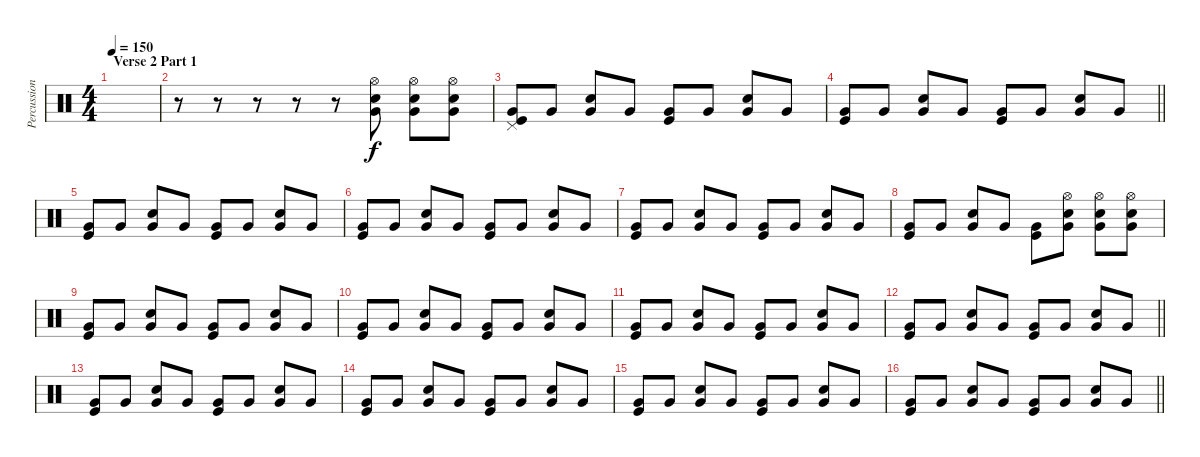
\track ("Percussion" "Percussion") {instrument percussion}
\staff {score}
\articulation defaults
\ts (4 4)
\section ("" "Verse 2 Part 1")
\tempo 150
\clef neutral
\ks c
|
r.8 r.8 r.8 r.8 r.8 ("Very Low Tom (hit)" "Snare (hit) 2" "Hi-Hat (open)").8 ("Very Low Tom (hit)" "Snare (hit) 2" "Hi-Hat (open)").8 ("Very Low Tom (hit)" "Snare (hit) 2" "Hi-Hat (open)").8 |
("Very Low Tom (hit)" "Kick (hit)" "Pedal Hi-Hat (hit)").8 "Very Low Tom (hit)".8 ("Very Low Tom (hit)" "Snare (hit) 2").8 "Very Low Tom (hit)".8 ("Very Low Tom (hit)" "Kick (hit)").8 "Very Low Tom (hit)".8 ("Very Low Tom (hit)" "Snare (hit) 2").8 "Very Low Tom (hit)".8 |
\barLineRight lightlight
("Very Low Tom (hit)" "Kick (hit)").8 "Very Low Tom (hit)".8 ("Very Low Tom (hit)" "Snare (hit) 2").8 "Very Low Tom (hit)".8 ("Very Low Tom (hit)" "Kick (hit)").8 "Very Low Tom (hit)".8 ("Very Low Tom (hit)" "Snare (hit) 2").8 "Very Low Tom (hit)".8 |
("Very Low Tom (hit)" "Kick (hit)").8 "Very Low Tom (hit)".8 ("Very Low Tom (hit)" "Snare (hit) 2").8 "Very Low Tom (hit)".8 ("Very Low Tom (hit)" "Kick (hit)").8 "Very Low Tom (hit)".8 ("Very Low Tom (hit)" "Snare (hit) 2").8 "Very Low Tom (hit)".8 |
("Very Low Tom (hit)" "Kick (hit)").8 "Very Low Tom (hit)".8 ("Very Low Tom (hit)" "Snare (hit) 2").8 "Very Low Tom (hit)".8 ("Very Low Tom (hit)" "Kick (hit)").8 "Very Low Tom (hit)".8 ("Very Low Tom (hit)" "Snare (hit) 2").8 "Very Low Tom (hit)".8 |
("Very Low Tom (hit)" "Kick (hit)").8 "Very Low Tom (hit)".8 ("Very Low Tom (hit)" "Snare (hit) 2").8 "Very Low Tom (hit)".8 ("Very Low Tom (hit)" "Kick (hit)").8 "Very Low Tom (hit)".8 ("Very Low Tom (hit)" "Snare (hit) 2").8 "Very Low Tom (hit)".8 |
("Very Low Tom (hit)" "Kick (hit)").8 "Very Low Tom (hit)".8 ("Very Low Tom (hit)" "Snare (hit) 2").8 "Very Low Tom (hit)".8 ("Very Low Tom (hit)" "Kick (hit)").8 ("Very Low Tom (hit)" "Snare (hit) 2" "Hi-Hat (open)").8 ("Very Low Tom (hit)" "Snare (hit) 2" "Hi-Hat (open)").8 ("Very Low Tom (hit)" "Snare (hit) 2" "Hi-Hat (open)").8 |
("Very Low Tom (hit)" "Kick (hit)").8 "Very Low Tom (hit)".8 ("Very Low Tom (hit)" "Snare (hit) 2").8 "Very Low Tom (hit)".8 ("Very Low Tom (hit)" "Kick (hit)").8 "Very Low Tom (hit)".8 ("Very Low Tom (hit)" "Snare (hit) 2").8 "Very Low Tom (hit)".8 |
("Very Low Tom (hit)" "Kick (hit)").8 "Very Low Tom (hit)".8 ("Very Low Tom (hit)" "Snare (hit) 2").8 "Very Low Tom (hit)".8 ("Very Low Tom (hit)" "Kick (hit)").8 "Very Low Tom (hit)".8 ("Very Low Tom (hit)" "Snare (hit) 2").8 "Very Low Tom (hit)".8 |
("Very Low Tom (hit)" "Kick (hit)").8 "Very Low Tom (hit)".8 ("Very Low Tom (hit)" "Snare (hit) 2").8 "Very Low Tom (hit)".8 ("Very Low Tom (hit)" "Kick (hit)").8 "Very Low Tom (hit)".8 ("Very Low Tom (hit)" "Snare (hit) 2").8 "Very Low Tom (hit)".8 |
\barLineRight lightlight
("Very Low Tom (hit)" "Kick (hit)").8 "Very Low Tom (hit)".8 ("Very Low Tom (hit)" "Snare (hit) 2").8 "Very Low Tom (hit)".8 ("Very Low Tom (hit)" "Kick (hit)").8 "Very Low Tom (hit)".8 ("Very Low Tom (hit)" "Snare (hit) 2").8 "Very Low Tom (hit)".8 |
("Very Low Tom (hit)" "Kick (hit)").8 "Very Low Tom (hit)".8 ("Very Low Tom (hit)" "Snare (hit) 2").8 "Very Low Tom (hit)".8 ("Very Low Tom (hit)" "Kick (hit)").8 "Very Low Tom (hit)".8 ("Very Low Tom (hit)" "Snare (hit) 2").8 "Very Low Tom (hit)".8 |
("Very Low Tom (hit)" "Kick (hit)").8 "Very Low Tom (hit)".8 ("Very Low Tom (hit)" "Snare (hit) 2").8 "Very Low Tom (hit)".8 ("Very Low Tom (hit)" "Kick (hit)").8 "Very Low Tom (hit)".8 ("Very Low Tom (hit)" "Snare (hit) 2").8 "Very Low Tom (hit)".8 |
("Very Low Tom (hit)" "Kick (hit)").8 "Very Low Tom (hit)".8 ("Very Low Tom (hit)" "Snare (hit) 2").8 "Very Low Tom (hit)".8 ("Very Low Tom (hit)" "Kick (hit)").8 "Very Low Tom (hit)".8 ("Very Low Tom (hit)" "Snare (hit) 2").8 "Very Low Tom (hit)".8 |
\barLineRight lightlight
("Very Low Tom (hit)" "Kick (hit)").8 "Very Low Tom (hit)".8 ("Very Low Tom (hit)" "Snare (hit) 2").8 "Very Low Tom (hit)".8 ("Very Low Tom (hit)" "Kick (hit)").8 "Very Low Tom (hit)".8 ("Very Low Tom (hit)" "Snare (hit) 2").8 "Very Low Tom (hit)".8
